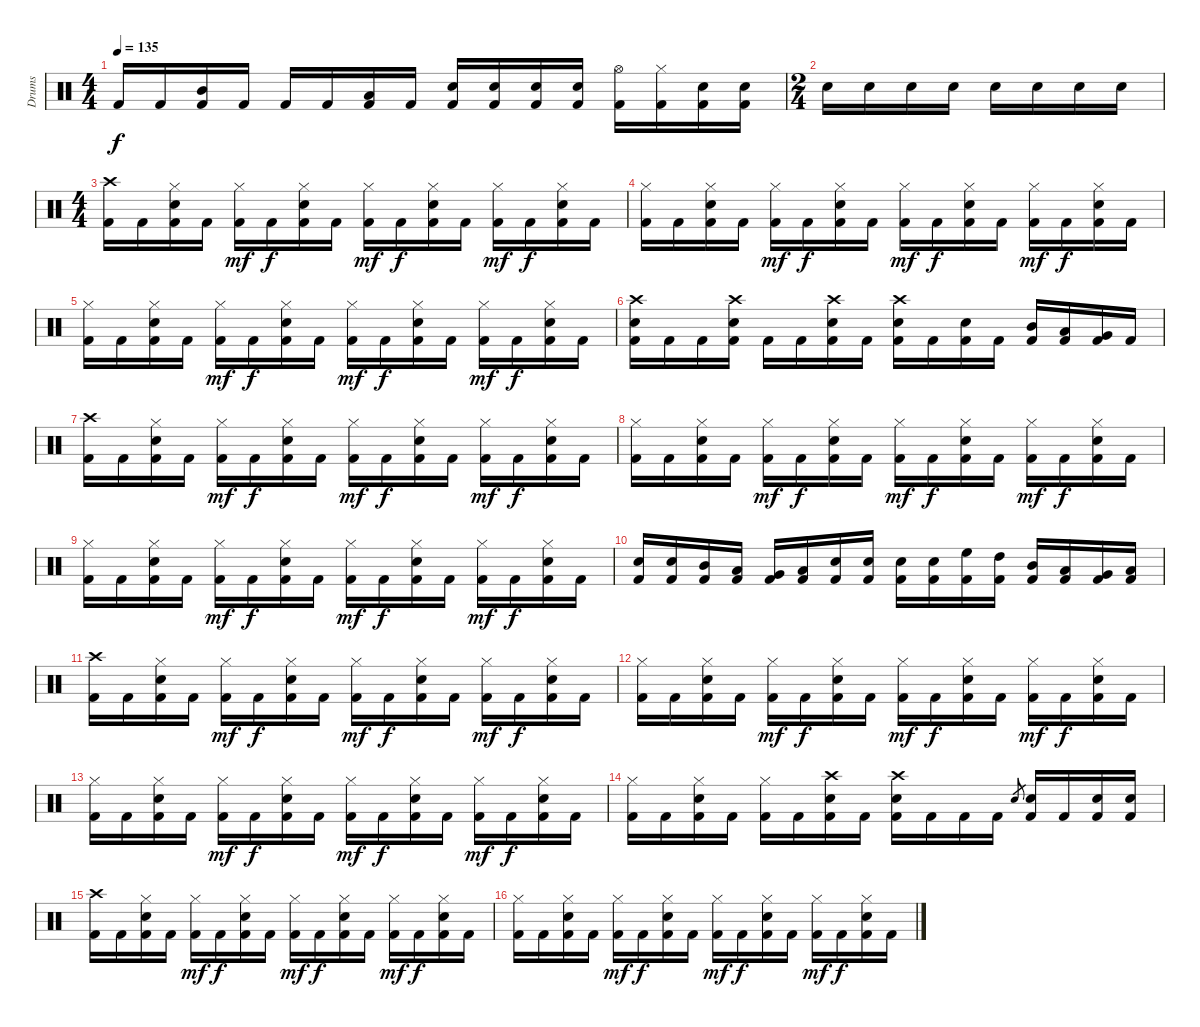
\track ("Drums" "Drums") {instrument percussion}
\staff {score}
\articulation defaults
\ts (4 4)
\tempo 135
\clef neutral
\ks c "Kick (hit) 2".16{dy f} "Kick (hit) 2".16
("Mid Tom (hit)" "Kick (hit) 2").16 "Kick (hit) 2".16 "Kick (hit) 2".16 "Kick (hit) 2".16 ("Low Tom (hit)" "Kick (hit) 2").16 "Kick (hit) 2".16 ("Snare (hit) 2" "Kick (hit) 2").16 ("Snare (hit) 2" "Kick (hit) 2").16 ("Snare (hit) 2" "Kick (hit) 2").16 ("Snare (hit) 2" "Kick (hit) 2").16 ("Hi-Hat (open)" "Kick (hit) 2").16 ("Hi-Hat (closed)" "Kick (hit) 2").16 ("Snare (hit) 2" "Kick (hit) 2").16 ("Snare (hit) 2" "Kick (hit) 2").16 |
\ts (2 4)
"Snare (hit) 2".16 "Snare (hit) 2".16 "Snare (hit) 2".16 "Snare (hit) 2".16 "Snare (hit) 2".16 "Snare (hit) 2".16 "Snare (hit) 2".16 "Snare (hit) 2".16 |
\ts (4 4)
("Crash high (hit)" "Kick (hit) 2").16 "Kick (hit) 2".16 ("Hi-Hat (closed)" "Snare (hit) 2" "Kick (hit) 2").16 "Kick (hit) 2".16 ("Hi-Hat (closed)" "Kick (hit) 2").16{dy mf} "Kick (hit) 2".16{dy f} ("Hi-Hat (closed)" "Snare (hit) 2" "Kick (hit) 2").16 "Kick (hit) 2".16 ("Hi-Hat (closed)" "Kick (hit) 2").16{dy mf} "Kick (hit) 2".16{dy f} ("Hi-Hat (closed)" "Snare (hit) 2" "Kick (hit) 2").16 "Kick (hit) 2".16 ("Hi-Hat (closed)" "Kick (hit) 2").16{dy mf} "Kick (hit) 2".16{dy f} ("Hi-Hat (closed)" "Snare (hit) 2" "Kick (hit) 2").16 "Kick (hit) 2".16 |
("Hi-Hat (closed)" "Kick (hit) 2").16 "Kick (hit) 2".16 ("Hi-Hat (closed)" "Snare (hit) 2" "Kick (hit) 2").16 "Kick (hit) 2".16 ("Hi-Hat (closed)" "Kick (hit) 2").16{dy mf} "Kick (hit) 2".16{dy f} ("Hi-Hat (closed)" "Snare (hit) 2" "Kick (hit) 2").16 "Kick (hit) 2".16 ("Hi-Hat (closed)" "Kick (hit) 2").16{dy mf} "Kick (hit) 2".16{dy f} ("Hi-Hat (closed)" "Snare (hit) 2" "Kick (hit) 2").16 "Kick (hit) 2".16 ("Hi-Hat (closed)" "Kick (hit) 2").16{dy mf} "Kick (hit) 2".16{dy f} ("Hi-Hat (closed)" "Snare (hit) 2" "Kick (hit) 2").16 "Kick (hit) 2".16 |
("Hi-Hat (closed)" "Kick (hit) 2").16 "Kick (hit) 2".16 ("Hi-Hat (closed)" "Snare (hit) 2" "Kick (hit) 2").16 "Kick (hit) 2".16 ("Hi-Hat (closed)" "Kick (hit) 2").16{dy mf} "Kick (hit) 2".16{dy f} ("Hi-Hat (closed)" "Snare (hit) 2" "Kick (hit) 2").16 "Kick (hit) 2".16 ("Hi-Hat (closed)" "Kick (hit) 2").16{dy mf} "Kick (hit) 2".16{dy f} ("Hi-Hat (closed)" "Snare (hit) 2" "Kick (hit) 2").16 "Kick (hit) 2".16 ("Hi-Hat (closed)" "Kick (hit) 2").16{dy mf} "Kick (hit) 2".16{dy f} ("Hi-Hat (closed)" "Snare (hit) 2" "Kick (hit) 2").16 "Kick (hit) 2".16 |
("Crash high (hit)" "Snare (hit) 2" "Kick (hit) 2").16 "Kick (hit) 2".16 "Kick (hit) 2".16 ("Crash high (hit)" "Snare (hit) 2" "Kick (hit) 2").16 "Kick (hit) 2".16 "Kick (hit) 2".16 ("Crash high (hit)" "Snare (hit) 2" "Kick (hit) 2").16 "Kick (hit) 2".16 ("Crash high (hit)" "Snare (hit) 2" "Kick (hit) 2").16 "Kick (hit) 2".16 ("Snare (hit) 2" "Kick (hit) 2").16 "Kick (hit) 2".16 ("Mid Tom (hit)" "Kick (hit) 2").16 ("Low Tom (hit)" "Kick (hit) 2").16 ("Very Low Tom (hit)" "Kick (hit) 2").16 "Kick (hit) 2".16 |
("Crash high (hit)" "Kick (hit) 2").16 "Kick (hit) 2".16 ("Hi-Hat (closed)" "Snare (hit) 2" "Kick (hit) 2").16 "Kick (hit) 2".16 ("Hi-Hat (closed)" "Kick (hit) 2").16{dy mf} "Kick (hit) 2".16{dy f} ("Hi-Hat (closed)" "Snare (hit) 2" "Kick (hit) 2").16 "Kick (hit) 2".16 ("Hi-Hat (closed)" "Kick (hit) 2").16{dy mf} "Kick (hit) 2".16{dy f} ("Hi-Hat (closed)" "Snare (hit) 2" "Kick (hit) 2").16 "Kick (hit) 2".16 ("Hi-Hat (closed)" "Kick (hit) 2").16{dy mf} "Kick (hit) 2".16{dy f} ("Hi-Hat (closed)" "Snare (hit) 2" "Kick (hit) 2").16 "Kick (hit) 2".16 |
("Hi-Hat (closed)" "Kick (hit) 2").16 "Kick (hit) 2".16 ("Hi-Hat (closed)" "Snare (hit) 2" "Kick (hit) 2").16 "Kick (hit) 2".16 ("Hi-Hat (closed)" "Kick (hit) 2").16{dy mf} "Kick (hit) 2".16{dy f} ("Hi-Hat (closed)" "Snare (hit) 2" "Kick (hit) 2").16 "Kick (hit) 2".16 ("Hi-Hat (closed)" "Kick (hit) 2").16{dy mf} "Kick (hit) 2".16{dy f} ("Hi-Hat (closed)" "Snare (hit) 2" "Kick (hit) 2").16 "Kick (hit) 2".16 ("Hi-Hat (closed)" "Kick (hit) 2").16{dy mf} "Kick (hit) 2".16{dy f} ("Hi-Hat (closed)" "Snare (hit) 2" "Kick (hit) 2").16 "Kick (hit) 2".16 |
("Hi-Hat (closed)" "Kick (hit) 2").16 "Kick (hit) 2".16 ("Hi-Hat (closed)" "Snare (hit) 2" "Kick (hit) 2").16 "Kick (hit) 2".16 ("Hi-Hat (closed)" "Kick (hit) 2").16{dy mf} "Kick (hit) 2".16{dy f} ("Hi-Hat (closed)" "Snare (hit) 2" "Kick (hit) 2").16 "Kick (hit) 2".16 ("Hi-Hat (closed)" "Kick (hit) 2").16{dy mf} "Kick (hit) 2".16{dy f} ("Hi-Hat (closed)" "Snare (hit) 2" "Kick (hit) 2").16 "Kick (hit) 2".16 ("Hi-Hat (closed)" "Kick (hit) 2").16{dy mf} "Kick (hit) 2".16{dy f} ("Hi-Hat (closed)" "Snare (hit) 2" "Kick (hit) 2").16 "Kick (hit) 2".16 |
("Snare (hit) 2" "Kick (hit) 2").16 ("Snare (hit) 2" "Kick (hit) 2").16 ("Mid Tom (hit)" "Kick (hit) 2").16 ("Low Tom (hit)" "Kick (hit) 2").16 ("Very Low Tom (hit)" "Kick (hit) 2").16 ("Low Floor Tom (hit)" "Kick (hit) 2").16 ("Snare (hit) 2" "Kick (hit) 2").16 ("Snare (hit) 2" "Kick (hit) 2").16 ("Snare (hit) 2" "Kick (hit) 2").16 ("Snare (hit) 2" "Kick (hit) 2").16 ("High Floor Tom (hit)" "Kick (hit) 2").16 ("High Tom (hit)" "Kick (hit) 2").16 ("Mid Tom (hit)" "Kick (hit) 2").16 ("Low Tom (hit)" "Kick (hit) 2").16 ("Very Low Tom (hit)" "Kick (hit) 2").16 ("Low Floor Tom (hit)" "Kick (hit) 2").16 |
("Crash high (hit)" "Kick (hit) 2").16 "Kick (hit) 2".16 ("Hi-Hat (closed)" "Snare (hit) 2" "Kick (hit) 2").16 "Kick (hit) 2".16 ("Hi-Hat (closed)" "Kick (hit) 2").16{dy mf} "Kick (hit) 2".16{dy f} ("Hi-Hat (closed)" "Snare (hit) 2" "Kick (hit) 2").16 "Kick (hit) 2".16 ("Hi-Hat (closed)" "Kick (hit) 2").16{dy mf} "Kick (hit) 2".16{dy f} ("Hi-Hat (closed)" "Snare (hit) 2" "Kick (hit) 2").16 "Kick (hit) 2".16 ("Hi-Hat (closed)" "Kick (hit) 2").16{dy mf} "Kick (hit) 2".16{dy f} ("Hi-Hat (closed)" "Snare (hit) 2" "Kick (hit) 2").16 "Kick (hit) 2".16 |
("Hi-Hat (closed)" "Kick (hit) 2").16 "Kick (hit) 2".16 ("Hi-Hat (closed)" "Snare (hit) 2" "Kick (hit) 2").16 "Kick (hit) 2".16 ("Hi-Hat (closed)" "Kick (hit) 2").16{dy mf} "Kick (hit) 2".16{dy f} ("Hi-Hat (closed)" "Snare (hit) 2" "Kick (hit) 2").16 "Kick (hit) 2".16 ("Hi-Hat (closed)" "Kick (hit) 2").16{dy mf} "Kick (hit) 2".16{dy f} ("Hi-Hat (closed)" "Snare (hit) 2" "Kick (hit) 2").16 "Kick (hit) 2".16 ("Hi-Hat (closed)" "Kick (hit) 2").16{dy mf} "Kick (hit) 2".16{dy f} ("Hi-Hat (closed)" "Snare (hit) 2" "Kick (hit) 2").16 "Kick (hit) 2".16 |
("Hi-Hat (closed)" "Kick (hit) 2").16 "Kick (hit) 2".16 ("Hi-Hat (closed)" "Snare (hit) 2" "Kick (hit) 2").16 "Kick (hit) 2".16 ("Hi-Hat (closed)" "Kick (hit) 2").16{dy mf} "Kick (hit) 2".16{dy f} ("Hi-Hat (closed)" "Snare (hit) 2" "Kick (hit) 2").16 "Kick (hit) 2".16 ("Hi-Hat (closed)" "Kick (hit) 2").16{dy mf} "Kick (hit) 2".16{dy f} ("Hi-Hat (closed)" "Snare (hit) 2" "Kick (hit) 2").16 "Kick (hit) 2".16 ("Hi-Hat (closed)" "Kick (hit) 2").16{dy mf} "Kick (hit) 2".16{dy f} ("Hi-Hat (closed)" "Snare (hit) 2" "Kick (hit) 2").16 "Kick (hit) 2".16 |
("Hi-Hat (closed)" "Kick (hit) 2").16 "Kick (hit) 2".16 ("Hi-Hat (closed)" "Snare (hit) 2" "Kick (hit) 2").16 "Kick (hit) 2".16 ("Hi-Hat (closed)" "Kick (hit) 2").16 "Kick (hit) 2".16 ("Crash high (hit)" "Snare (hit) 2" "Kick (hit) 2").16 "Kick (hit) 2".16 ("Crash high (hit)" "Snare (hit) 2" "Kick (hit) 2").16 "Kick (hit) 2".16 "Kick (hit) 2".16 "Kick (hit) 2".16 "Snare (hit) 2".8{gr} ("Snare (hit) 2" "Kick (hit) 2").16 "Kick (hit) 2".16 ("Snare (hit) 2" "Kick (hit) 2").16 ("Snare (hit) 2" "Kick (hit) 2").16 |
("Crash high (hit)" "Kick (hit) 2").16 "Kick (hit) 2".16 ("Hi-Hat (closed)" "Snare (hit) 2" "Kick (hit) 2").16 "Kick (hit) 2".16 ("Hi-Hat (closed)" "Kick (hit) 2").16{dy mf} "Kick (hit) 2".16{dy f} ("Hi-Hat (closed)" "Snare (hit) 2" "Kick (hit) 2").16 "Kick (hit) 2".16 ("Hi-Hat (closed)" "Kick (hit) 2").16{dy mf} "Kick (hit) 2".16{dy f} ("Hi-Hat (closed)" "Snare (hit) 2" "Kick (hit) 2").16 "Kick (hit) 2".16 ("Hi-Hat (closed)" "Kick (hit) 2").16{dy mf} "Kick (hit) 2".16{dy f} ("Hi-Hat (closed)" "Snare (hit) 2" "Kick (hit) 2").16 "Kick (hit) 2".16 |
("Hi-Hat (closed)" "Kick (hit) 2").16 "Kick (hit) 2".16 ("Hi-Hat (closed)" "Snare (hit) 2" "Kick (hit) 2").16 "Kick (hit) 2".16 ("Hi-Hat (closed)" "Kick (hit) 2").16{dy mf} "Kick (hit) 2".16{dy f} ("Hi-Hat (closed)" "Snare (hit) 2" "Kick (hit) 2").16 "Kick (hit) 2".16 ("Hi-Hat (closed)" "Kick (hit) 2").16{dy mf} "Kick (hit) 2".16{dy f} ("Hi-Hat (closed)" "Snare (hit) 2" "Kick (hit) 2").16 "Kick (hit) 2".16 ("Hi-Hat (closed)" "Kick (hit) 2").16{dy mf} "Kick (hit) 2".16{dy f} ("Hi-Hat (closed)" "Snare (hit) 2" "Kick (hit) 2").16 "Kick (hit) 2".16
